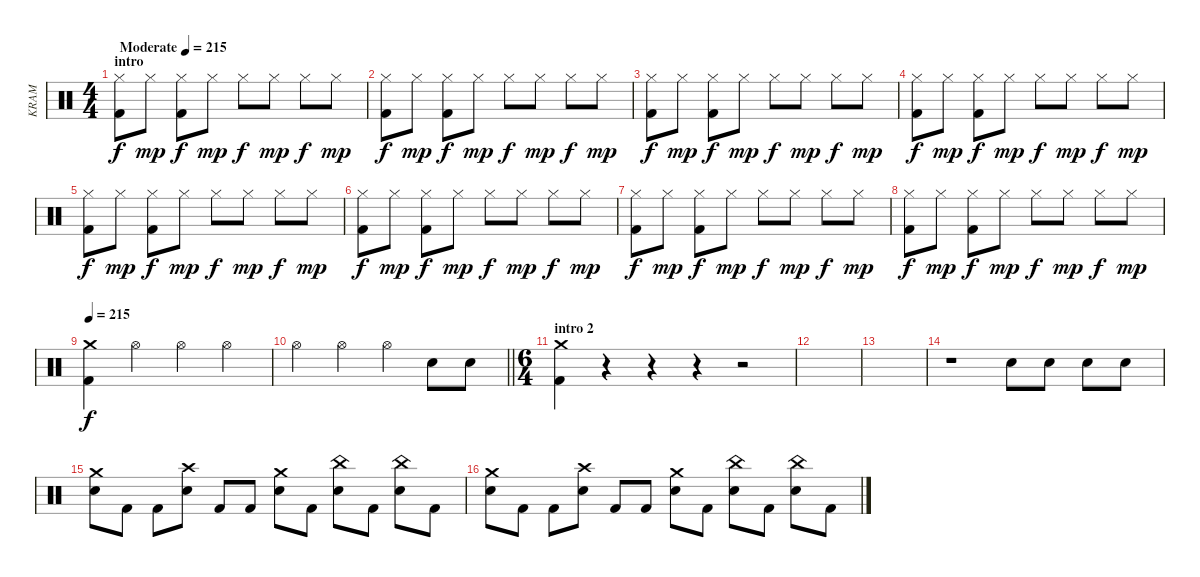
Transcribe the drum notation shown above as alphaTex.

\track ("KRAM" "KRAM") {instrument percussion}
\staff {score}
\articulation defaults
\ts (4 4)
\section ("" "intro")
\tempo (215 "Moderate")
\tempo 107
\tempo (215 "Moderate")
\clef neutral
\ks c
("Kick (hit) 2" "Hi-Hat (closed)").8{dy f} "Hi-Hat (closed)".8{dy mp} ("Kick (hit) 2" "Hi-Hat (closed)").8{dy f} "Hi-Hat (closed)".8{dy mp} "Hi-Hat (closed)".8{dy f} "Hi-Hat (closed)".8{dy mp} "Hi-Hat (closed)".8{dy f} "Hi-Hat (closed)".8{dy mp} |
("Kick (hit) 2" "Hi-Hat (closed)").8{dy f} "Hi-Hat (closed)".8{dy mp} ("Kick (hit) 2" "Hi-Hat (closed)").8{dy f} "Hi-Hat (closed)".8{dy mp} "Hi-Hat (closed)".8{dy f} "Hi-Hat (closed)".8{dy mp} "Hi-Hat (closed)".8{dy f} "Hi-Hat (closed)".8{dy mp} |
("Kick (hit) 2" "Hi-Hat (closed)").8{dy f} "Hi-Hat (closed)".8{dy mp} ("Kick (hit) 2" "Hi-Hat (closed)").8{dy f} "Hi-Hat (closed)".8{dy mp} "Hi-Hat (closed)".8{dy f} "Hi-Hat (closed)".8{dy mp} "Hi-Hat (closed)".8{dy f} "Hi-Hat (closed)".8{dy mp} |
("Kick (hit) 2" "Hi-Hat (closed)").8{dy f} "Hi-Hat (closed)".8{dy mp} ("Kick (hit) 2" "Hi-Hat (closed)").8{dy f} "Hi-Hat (closed)".8{dy mp} "Hi-Hat (closed)".8{dy f} "Hi-Hat (closed)".8{dy mp} "Hi-Hat (closed)".8{dy f} "Hi-Hat (closed)".8{dy mp} |
("Kick (hit) 2" "Hi-Hat (closed)").8{dy f} "Hi-Hat (closed)".8{dy mp} ("Kick (hit) 2" "Hi-Hat (closed)").8{dy f} "Hi-Hat (closed)".8{dy mp} "Hi-Hat (closed)".8{dy f} "Hi-Hat (closed)".8{dy mp} "Hi-Hat (closed)".8{dy f} "Hi-Hat (closed)".8{dy mp} |
("Kick (hit) 2" "Hi-Hat (closed)").8{dy f} "Hi-Hat (closed)".8{dy mp} ("Kick (hit) 2" "Hi-Hat (closed)").8{dy f} "Hi-Hat (closed)".8{dy mp} "Hi-Hat (closed)".8{dy f} "Hi-Hat (closed)".8{dy mp} "Hi-Hat (closed)".8{dy f} "Hi-Hat (closed)".8{dy mp} |
("Kick (hit) 2" "Hi-Hat (closed)").8{dy f} "Hi-Hat (closed)".8{dy mp} ("Kick (hit) 2" "Hi-Hat (closed)").8{dy f} "Hi-Hat (closed)".8{dy mp} "Hi-Hat (closed)".8{dy f} "Hi-Hat (closed)".8{dy mp} "Hi-Hat (closed)".8{dy f} "Hi-Hat (closed)".8{dy mp} |
("Kick (hit) 2" "Hi-Hat (closed)").8{dy f} "Hi-Hat (closed)".8{dy mp} ("Kick (hit) 2" "Hi-Hat (closed)").8{dy f} "Hi-Hat (closed)".8{dy mp} "Hi-Hat (closed)".8{dy f} "Hi-Hat (closed)".8{dy mp} "Hi-Hat (closed)".8{dy f} "Hi-Hat (closed)".8{dy mp} |
\tempo 215
("Kick (hit) 2" "Crash medium (hit)").4{dy f} "Hi-Hat (open)".4 "Hi-Hat (open)".4 "Hi-Hat (open)".4 |
\barLineRight lightlight "Hi-Hat (open)".4 "Hi-Hat (open)".4 "Hi-Hat (open)".4 "Electric Snare (hit)".8 "Electric Snare (hit)".8
|
\ts (6 4)
\section ("" "intro 2")
("Kick (hit) 2" "Crash medium (hit)").4 r.4 r.4 r.4 r.2 |
|
|
r.1 "Electric Snare (hit)".8 "Electric Snare (hit)".8 "Electric Snare (hit)".8 "Electric Snare (hit)".8 |
("Electric Snare (hit)" "Crash medium (hit)").8 "Kick (hit) 2".8 "Kick (hit) 2".8 ("Electric Snare (hit)" "Crash high (hit)").8 "Kick (hit) 2".8 "Kick (hit) 2".8 ("Electric Snare (hit)" "Crash medium (hit)").8 "Kick (hit) 2".8 ("Electric Snare (hit)" "China (hit)").8 "Kick (hit) 2".8 ("Electric Snare (hit)" "China (hit)").8 "Kick (hit) 2".8 |
("Electric Snare (hit)" "Crash medium (hit)").8 "Kick (hit) 2".8 "Kick (hit) 2".8 ("Electric Snare (hit)" "Crash high (hit)").8 "Kick (hit) 2".8 "Kick (hit) 2".8 ("Electric Snare (hit)" "Crash medium (hit)").8 "Kick (hit) 2".8 ("Electric Snare (hit)" "China (hit)").8 "Kick (hit) 2".8 ("Electric Snare (hit)" "China (hit)").8 "Kick (hit) 2".8
